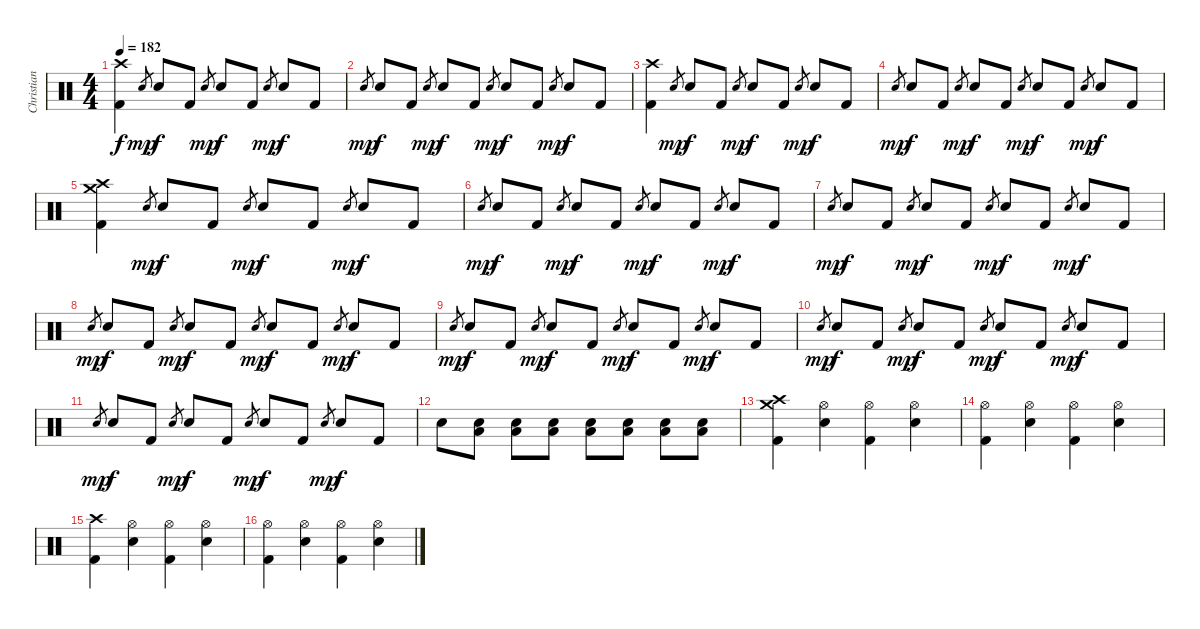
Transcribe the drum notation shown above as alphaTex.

\track ("Christian Meyer" "Christian ") {instrument percussion}
\staff {score}
\articulation defaults
\ts (4 4)
\tempo 182
\clef neutral
\ks c
("Crash high (hit)" "Kick (hit) 2").4{dy f} "Electric Snare (hit)".8{gr dy mp} "Electric Snare (hit)".8{dy f} "Kick (hit) 2".8 "Electric Snare (hit)".8{gr dy mp} "Electric Snare (hit)".8{dy f} "Kick (hit) 2".8 "Electric Snare (hit)".8{gr dy mp} "Electric Snare (hit)".8{dy f} "Kick (hit) 2".8 |
"Electric Snare (hit)".8{gr dy mp} "Electric Snare (hit)".8{dy f} "Kick (hit) 2".8 "Electric Snare (hit)".8{gr dy mp} "Electric Snare (hit)".8{dy f} "Kick (hit) 2".8 "Electric Snare (hit)".8{gr dy mp} "Electric Snare (hit)".8{dy f} "Kick (hit) 2".8 "Electric Snare (hit)".8{gr dy mp} "Electric Snare (hit)".8{dy f} "Kick (hit) 2".8 |
("Crash high (hit)" "Kick (hit) 2").4 "Electric Snare (hit)".8{gr dy mp} "Electric Snare (hit)".8{dy f} "Kick (hit) 2".8 "Electric Snare (hit)".8{gr dy mp} "Electric Snare (hit)".8{dy f} "Kick (hit) 2".8 "Electric Snare (hit)".8{gr dy mp} "Electric Snare (hit)".8{dy f} "Kick (hit) 2".8 |
"Electric Snare (hit)".8{gr dy mp} "Electric Snare (hit)".8{dy f} "Kick (hit) 2".8 "Electric Snare (hit)".8{gr dy mp} "Electric Snare (hit)".8{dy f} "Kick (hit) 2".8 "Electric Snare (hit)".8{gr dy mp} "Electric Snare (hit)".8{dy f} "Kick (hit) 2".8 "Electric Snare (hit)".8{gr dy mp} "Electric Snare (hit)".8{dy f} "Kick (hit) 2".8 |
("Crash medium (hit)" "Crash high (hit)" "Kick (hit) 2").4 "Electric Snare (hit)".8{gr dy mp} "Electric Snare (hit)".8{dy f} "Kick (hit) 2".8 "Electric Snare (hit)".8{gr dy mp} "Electric Snare (hit)".8{dy f} "Kick (hit) 2".8 "Electric Snare (hit)".8{gr dy mp} "Electric Snare (hit)".8{dy f} "Kick (hit) 2".8 |
"Electric Snare (hit)".8{gr dy mp} "Electric Snare (hit)".8{dy f} "Kick (hit) 2".8 "Electric Snare (hit)".8{gr dy mp} "Electric Snare (hit)".8{dy f} "Kick (hit) 2".8 "Electric Snare (hit)".8{gr dy mp} "Electric Snare (hit)".8{dy f} "Kick (hit) 2".8 "Electric Snare (hit)".8{gr dy mp} "Electric Snare (hit)".8{dy f} "Kick (hit) 2".8 |
"Electric Snare (hit)".8{gr dy mp} "Electric Snare (hit)".8{dy f} "Kick (hit) 2".8 "Electric Snare (hit)".8{gr dy mp} "Electric Snare (hit)".8{dy f} "Kick (hit) 2".8 "Electric Snare (hit)".8{gr dy mp} "Electric Snare (hit)".8{dy f} "Kick (hit) 2".8 "Electric Snare (hit)".8{gr dy mp} "Electric Snare (hit)".8{dy f} "Kick (hit) 2".8 |
"Electric Snare (hit)".8{gr dy mp} "Electric Snare (hit)".8{dy f} "Kick (hit) 2".8 "Electric Snare (hit)".8{gr dy mp} "Electric Snare (hit)".8{dy f} "Kick (hit) 2".8 "Electric Snare (hit)".8{gr dy mp} "Electric Snare (hit)".8{dy f} "Kick (hit) 2".8 "Electric Snare (hit)".8{gr dy mp} "Electric Snare (hit)".8{dy f} "Kick (hit) 2".8 |
"Electric Snare (hit)".8{gr dy mp} "Electric Snare (hit)".8{dy f} "Kick (hit) 2".8 "Electric Snare (hit)".8{gr dy mp} "Electric Snare (hit)".8{dy f} "Kick (hit) 2".8 "Electric Snare (hit)".8{gr dy mp} "Electric Snare (hit)".8{dy f} "Kick (hit) 2".8 "Electric Snare (hit)".8{gr dy mp} "Electric Snare (hit)".8{dy f} "Kick (hit) 2".8 |
"Electric Snare (hit)".8{gr dy mp} "Electric Snare (hit)".8{dy f} "Kick (hit) 2".8 "Electric Snare (hit)".8{gr dy mp} "Electric Snare (hit)".8{dy f} "Kick (hit) 2".8 "Electric Snare (hit)".8{gr dy mp} "Electric Snare (hit)".8{dy f} "Kick (hit) 2".8 "Electric Snare (hit)".8{gr dy mp} "Electric Snare (hit)".8{dy f} "Kick (hit) 2".8 |
"Electric Snare (hit)".8{gr dy mp} "Electric Snare (hit)".8{dy f} "Kick (hit) 2".8 "Electric Snare (hit)".8{gr dy mp} "Electric Snare (hit)".8{dy f} "Kick (hit) 2".8 "Electric Snare (hit)".8{gr dy mp} "Electric Snare (hit)".8{dy f} "Kick (hit) 2".8 "Electric Snare (hit)".8{gr dy mp} "Electric Snare (hit)".8{dy f} "Kick (hit) 2".8 |
"Electric Snare (hit)".8 ("Electric Snare (hit)" "Low Tom (hit)").8{volume 8} ("Electric Snare (hit)" "Low Tom (hit)").8{volume 9} ("Electric Snare (hit)" "Low Tom (hit)").8{volume 10} ("Electric Snare (hit)" "Low Tom (hit)").8{volume 11} ("Electric Snare (hit)" "Low Tom (hit)").8{volume 12} ("Electric Snare (hit)" "Low Tom (hit)").8{volume 13} ("Electric Snare (hit)" "Low Tom (hit)").8{volume 14} |
("Crash medium (hit)" "Crash high (hit)" "Kick (hit) 2").4 ("Hi-Hat (open)" "Electric Snare (hit)").4 ("Hi-Hat (open)" "Kick (hit) 2").4 ("Hi-Hat (open)" "Electric Snare (hit)").4 |
("Hi-Hat (open)" "Kick (hit) 2").4 ("Hi-Hat (open)" "Electric Snare (hit)").4 ("Hi-Hat (open)" "Kick (hit) 2").4 ("Hi-Hat (open)" "Electric Snare (hit)").4 |
("Crash high (hit)" "Kick (hit) 2").4 ("Hi-Hat (open)" "Electric Snare (hit)").4 ("Hi-Hat (open)" "Kick (hit) 2").4 ("Hi-Hat (open)" "Electric Snare (hit)").4 |
("Hi-Hat (open)" "Kick (hit) 2").4 ("Hi-Hat (open)" "Electric Snare (hit)").4 ("Hi-Hat (open)" "Kick (hit) 2").4 ("Hi-Hat (open)" "Electric Snare (hit)").4
